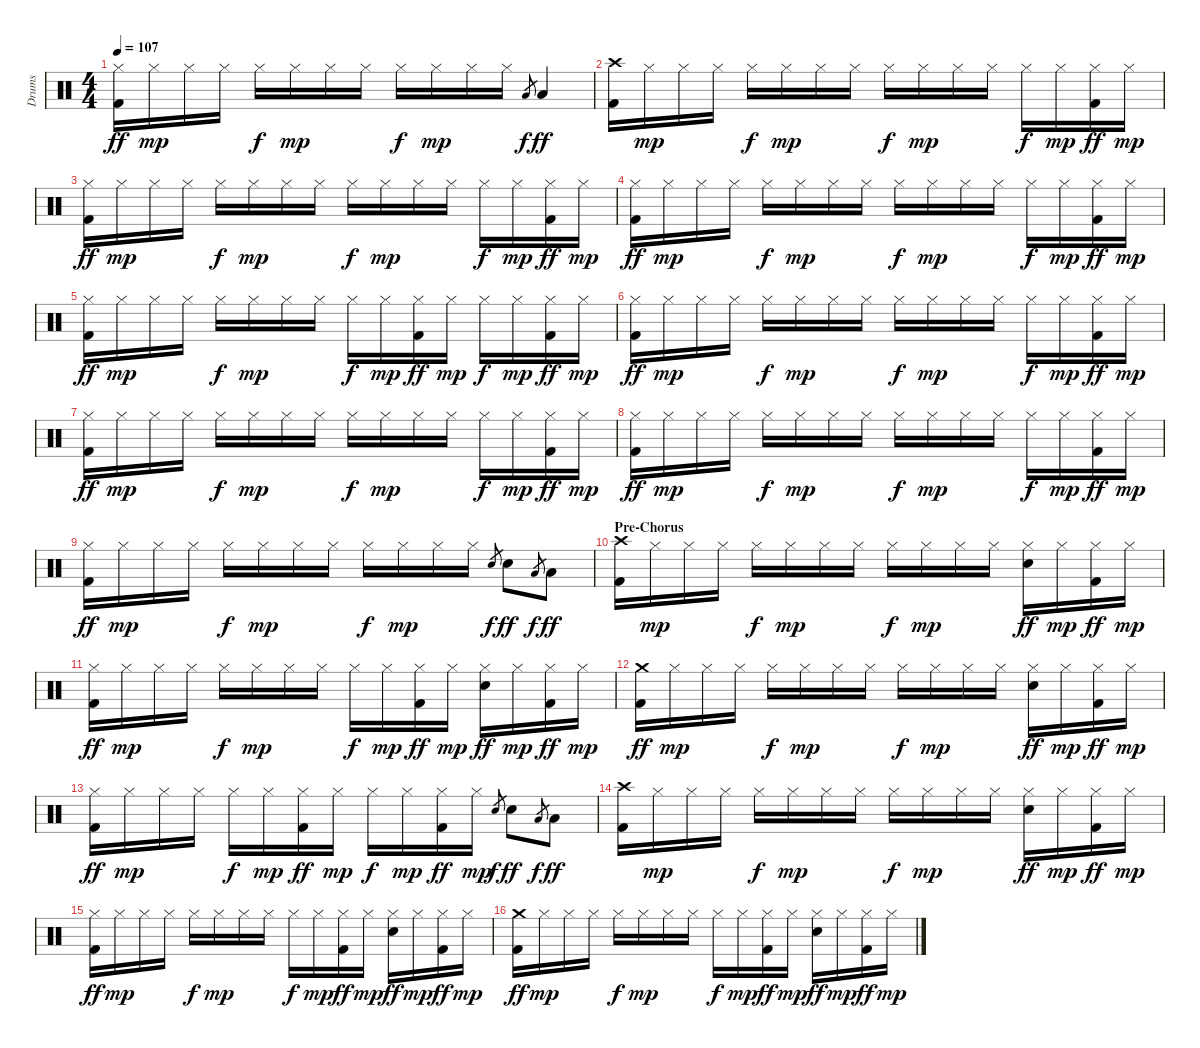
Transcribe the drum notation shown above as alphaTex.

\track ("Drums" "Drums") {instrument percussion}
\staff {score}
\articulation defaults
\ts (4 4)
\tempo 107
\clef neutral
\ks c
("Hi-Hat (closed)" "Kick (hit) 2").16{dy ff} "Hi-Hat (closed)".16{dy mp} "Hi-Hat (closed)".16 "Hi-Hat (closed)".16 "Hi-Hat (closed)".16{dy f} "Hi-Hat (closed)".16{dy mp} "Hi-Hat (closed)".16 "Hi-Hat (closed)".16 "Hi-Hat (closed)".16{dy f} "Hi-Hat (closed)".16{dy mp} "Hi-Hat (closed)".16 "Hi-Hat (closed)".16 "Low Tom (hit)".8{gr dy f} "Low Tom (hit)".4{dy ff} |
("Crash high (hit)" "Kick (hit) 2").16 "Hi-Hat (closed)".16{dy mp} "Hi-Hat (closed)".16 "Hi-Hat (closed)".16 "Hi-Hat (closed)".16{dy f} "Hi-Hat (closed)".16{dy mp} "Hi-Hat (closed)".16 "Hi-Hat (closed)".16 "Hi-Hat (closed)".16{dy f} "Hi-Hat (closed)".16{dy mp} "Hi-Hat (closed)".16 "Hi-Hat (closed)".16 "Hi-Hat (closed)".16{dy f} "Hi-Hat (closed)".16{dy mp} ("Hi-Hat (closed)" "Kick (hit) 2").16{dy ff} "Hi-Hat (closed)".16{dy mp} |
("Hi-Hat (closed)" "Kick (hit) 2").16{dy ff} "Hi-Hat (closed)".16{dy mp} "Hi-Hat (closed)".16 "Hi-Hat (closed)".16 "Hi-Hat (closed)".16{dy f} "Hi-Hat (closed)".16{dy mp} "Hi-Hat (closed)".16 "Hi-Hat (closed)".16 "Hi-Hat (closed)".16{dy f} "Hi-Hat (closed)".16{dy mp} "Hi-Hat (closed)".16 "Hi-Hat (closed)".16 "Hi-Hat (closed)".16{dy f} "Hi-Hat (closed)".16{dy mp} ("Hi-Hat (closed)" "Kick (hit) 2").16{dy ff} "Hi-Hat (closed)".16{dy mp} |
("Hi-Hat (closed)" "Kick (hit) 2").16{dy ff} "Hi-Hat (closed)".16{dy mp} "Hi-Hat (closed)".16 "Hi-Hat (closed)".16 "Hi-Hat (closed)".16{dy f} "Hi-Hat (closed)".16{dy mp} "Hi-Hat (closed)".16 "Hi-Hat (closed)".16 "Hi-Hat (closed)".16{dy f} "Hi-Hat (closed)".16{dy mp} "Hi-Hat (closed)".16 "Hi-Hat (closed)".16 "Hi-Hat (closed)".16{dy f} "Hi-Hat (closed)".16{dy mp} ("Hi-Hat (closed)" "Kick (hit) 2").16{dy ff} "Hi-Hat (closed)".16{dy mp} |
("Hi-Hat (closed)" "Kick (hit) 2").16{dy ff} "Hi-Hat (closed)".16{dy mp} "Hi-Hat (closed)".16 "Hi-Hat (closed)".16 "Hi-Hat (closed)".16{dy f} "Hi-Hat (closed)".16{dy mp} "Hi-Hat (closed)".16 "Hi-Hat (closed)".16 "Hi-Hat (closed)".16{dy f} "Hi-Hat (closed)".16{dy mp} ("Hi-Hat (closed)" "Kick (hit) 2").16{dy ff} "Hi-Hat (closed)".16{dy mp} "Hi-Hat (closed)".16{dy f} "Hi-Hat (closed)".16{dy mp} ("Hi-Hat (closed)" "Kick (hit) 2").16{dy ff} "Hi-Hat (closed)".16{dy mp} |
("Hi-Hat (closed)" "Kick (hit) 2").16{dy ff} "Hi-Hat (closed)".16{dy mp} "Hi-Hat (closed)".16 "Hi-Hat (closed)".16 "Hi-Hat (closed)".16{dy f} "Hi-Hat (closed)".16{dy mp} "Hi-Hat (closed)".16 "Hi-Hat (closed)".16 "Hi-Hat (closed)".16{dy f} "Hi-Hat (closed)".16{dy mp} "Hi-Hat (closed)".16 "Hi-Hat (closed)".16 "Hi-Hat (closed)".16{dy f} "Hi-Hat (closed)".16{dy mp} ("Hi-Hat (closed)" "Kick (hit) 2").16{dy ff} "Hi-Hat (closed)".16{dy mp} |
("Hi-Hat (closed)" "Kick (hit) 2").16{dy ff} "Hi-Hat (closed)".16{dy mp} "Hi-Hat (closed)".16 "Hi-Hat (closed)".16 "Hi-Hat (closed)".16{dy f} "Hi-Hat (closed)".16{dy mp} "Hi-Hat (closed)".16 "Hi-Hat (closed)".16 "Hi-Hat (closed)".16{dy f} "Hi-Hat (closed)".16{dy mp} "Hi-Hat (closed)".16 "Hi-Hat (closed)".16 "Hi-Hat (closed)".16{dy f} "Hi-Hat (closed)".16{dy mp} ("Hi-Hat (closed)" "Kick (hit) 2").16{dy ff} "Hi-Hat (closed)".16{dy mp} |
("Hi-Hat (closed)" "Kick (hit) 2").16{dy ff} "Hi-Hat (closed)".16{dy mp} "Hi-Hat (closed)".16 "Hi-Hat (closed)".16 "Hi-Hat (closed)".16{dy f} "Hi-Hat (closed)".16{dy mp} "Hi-Hat (closed)".16 "Hi-Hat (closed)".16 "Hi-Hat (closed)".16{dy f} "Hi-Hat (closed)".16{dy mp} "Hi-Hat (closed)".16 "Hi-Hat (closed)".16 "Hi-Hat (closed)".16{dy f} "Hi-Hat (closed)".16{dy mp} ("Hi-Hat (closed)" "Kick (hit) 2").16{dy ff} "Hi-Hat (closed)".16{dy mp} |
("Hi-Hat (closed)" "Kick (hit) 2").16{dy ff} "Hi-Hat (closed)".16{dy mp} "Hi-Hat (closed)".16 "Hi-Hat (closed)".16 "Hi-Hat (closed)".16{dy f} "Hi-Hat (closed)".16{dy mp} "Hi-Hat (closed)".16 "Hi-Hat (closed)".16 "Hi-Hat (closed)".16{dy f} "Hi-Hat (closed)".16{dy mp} "Hi-Hat (closed)".16 "Hi-Hat (closed)".16 "Snare (hit) 2".8{gr dy f} "Snare (hit) 2".8{dy ff} "Low Tom (hit)".8{gr dy f} "Low Tom (hit)".8{dy ff} |
\section ("" "Pre-Chorus")
("Crash high (hit)" "Kick (hit) 2").16 "Hi-Hat (closed)".16{dy mp} "Hi-Hat (closed)".16 "Hi-Hat (closed)".16 "Hi-Hat (closed)".16{dy f} "Hi-Hat (closed)".16{dy mp} "Hi-Hat (closed)".16 "Hi-Hat (closed)".16 "Hi-Hat (closed)".16{dy f} "Hi-Hat (closed)".16{dy mp} "Hi-Hat (closed)".16 "Hi-Hat (closed)".16 ("Hi-Hat (closed)" "Snare (hit) 2").16{dy ff} "Hi-Hat (closed)".16{dy mp} ("Hi-Hat (closed)" "Kick (hit) 2").16{dy ff} "Hi-Hat (closed)".16{dy mp} |
("Hi-Hat (closed)" "Kick (hit) 2").16{dy ff} "Hi-Hat (closed)".16{dy mp} "Hi-Hat (closed)".16 "Hi-Hat (closed)".16 "Hi-Hat (closed)".16{dy f} "Hi-Hat (closed)".16{dy mp} "Hi-Hat (closed)".16 "Hi-Hat (closed)".16 "Hi-Hat (closed)".16{dy f} "Hi-Hat (closed)".16{dy mp} ("Hi-Hat (closed)" "Kick (hit) 2").16{dy ff} "Hi-Hat (closed)".16{dy mp} ("Hi-Hat (closed)" "Snare (hit) 2").16{dy ff} "Hi-Hat (closed)".16{dy mp} ("Hi-Hat (closed)" "Kick (hit) 2").16{dy ff} "Hi-Hat (closed)".16{dy mp} |
("Crash medium (hit)" "Kick (hit) 2").16{dy ff} "Hi-Hat (closed)".16{dy mp} "Hi-Hat (closed)".16 "Hi-Hat (closed)".16 "Hi-Hat (closed)".16{dy f} "Hi-Hat (closed)".16{dy mp} "Hi-Hat (closed)".16 "Hi-Hat (closed)".16 "Hi-Hat (closed)".16{dy f} "Hi-Hat (closed)".16{dy mp} "Hi-Hat (closed)".16 "Hi-Hat (closed)".16 ("Hi-Hat (closed)" "Snare (hit) 2").16{dy ff} "Hi-Hat (closed)".16{dy mp} ("Hi-Hat (closed)" "Kick (hit) 2").16{dy ff} "Hi-Hat (closed)".16{dy mp} |
("Hi-Hat (closed)" "Kick (hit) 2").16{dy ff} "Hi-Hat (closed)".16{dy mp} "Hi-Hat (closed)".16 "Hi-Hat (closed)".16 "Hi-Hat (closed)".16{dy f} "Hi-Hat (closed)".16{dy mp} ("Hi-Hat (closed)" "Kick (hit) 2").16{dy ff} "Hi-Hat (closed)".16{dy mp} "Hi-Hat (closed)".16{dy f} "Hi-Hat (closed)".16{dy mp} ("Hi-Hat (closed)" "Kick (hit) 2").16{dy ff} "Hi-Hat (closed)".16{dy mp} "Snare (hit) 2".8{gr dy f} "Snare (hit) 2".8{dy ff} "Low Tom (hit)".8{gr dy f} "Low Tom (hit)".8{dy ff} |
("Crash high (hit)" "Kick (hit) 2").16 "Hi-Hat (closed)".16{dy mp} "Hi-Hat (closed)".16 "Hi-Hat (closed)".16 "Hi-Hat (closed)".16{dy f} "Hi-Hat (closed)".16{dy mp} "Hi-Hat (closed)".16 "Hi-Hat (closed)".16 "Hi-Hat (closed)".16{dy f} "Hi-Hat (closed)".16{dy mp} "Hi-Hat (closed)".16 "Hi-Hat (closed)".16 ("Hi-Hat (closed)" "Snare (hit) 2").16{dy ff} "Hi-Hat (closed)".16{dy mp} ("Hi-Hat (closed)" "Kick (hit) 2").16{dy ff} "Hi-Hat (closed)".16{dy mp} |
("Hi-Hat (closed)" "Kick (hit) 2").16{dy ff} "Hi-Hat (closed)".16{dy mp} "Hi-Hat (closed)".16 "Hi-Hat (closed)".16 "Hi-Hat (closed)".16{dy f} "Hi-Hat (closed)".16{dy mp} "Hi-Hat (closed)".16 "Hi-Hat (closed)".16 "Hi-Hat (closed)".16{dy f} "Hi-Hat (closed)".16{dy mp} ("Hi-Hat (closed)" "Kick (hit) 2").16{dy ff} "Hi-Hat (closed)".16{dy mp} ("Hi-Hat (closed)" "Snare (hit) 2").16{dy ff} "Hi-Hat (closed)".16{dy mp} ("Hi-Hat (closed)" "Kick (hit) 2").16{dy ff} "Hi-Hat (closed)".16{dy mp} |
("Crash medium (hit)" "Kick (hit) 2").16{dy ff} "Hi-Hat (closed)".16{dy mp} "Hi-Hat (closed)".16 "Hi-Hat (closed)".16 "Hi-Hat (closed)".16{dy f} "Hi-Hat (closed)".16{dy mp} "Hi-Hat (closed)".16 "Hi-Hat (closed)".16 "Hi-Hat (closed)".16{dy f} "Hi-Hat (closed)".16{dy mp} ("Hi-Hat (closed)" "Kick (hit) 2").16{dy ff} "Hi-Hat (closed)".16{dy mp} ("Hi-Hat (closed)" "Snare (hit) 2").16{dy ff} "Hi-Hat (closed)".16{dy mp} ("Hi-Hat (closed)" "Kick (hit) 2").16{dy ff} "Hi-Hat (closed)".16{dy mp}
